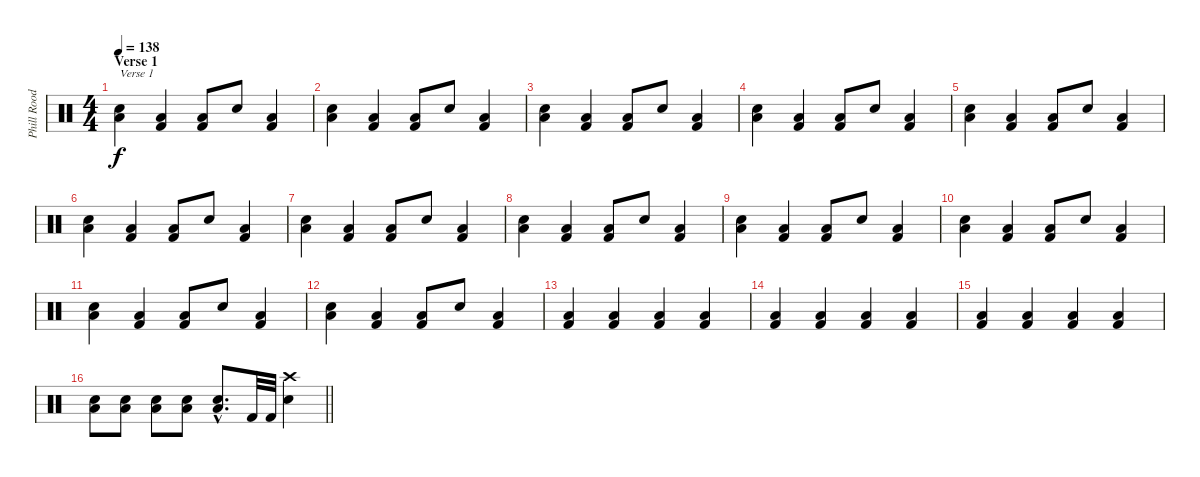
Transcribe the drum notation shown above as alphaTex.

\track ("Phill Rood" "Phill Rood") {instrument percussion}
\staff {score}
\articulation defaults
\ts (4 4)
\section ("" "Verse 1")
\tempo 138
\clef neutral
\ks c
("Snare (hit) 2" "Low Tom (hit)").4{txt "Verse 1" dy f} ("Kick (hit) 2" "Low Tom (hit)").4 ("Kick (hit) 2" "Low Tom (hit)").8 "Snare (hit) 2".8 ("Kick (hit) 2" "Low Tom (hit)").4 |
("Snare (hit) 2" "Low Tom (hit)").4 ("Kick (hit) 2" "Low Tom (hit)").4 ("Kick (hit) 2" "Low Tom (hit)").8 "Snare (hit) 2".8 ("Kick (hit) 2" "Low Tom (hit)").4 |
("Snare (hit) 2" "Low Tom (hit)").4 ("Kick (hit) 2" "Low Tom (hit)").4 ("Kick (hit) 2" "Low Tom (hit)").8 "Snare (hit) 2".8 ("Kick (hit) 2" "Low Tom (hit)").4 |
("Snare (hit) 2" "Low Tom (hit)").4 ("Kick (hit) 2" "Low Tom (hit)").4 ("Kick (hit) 2" "Low Tom (hit)").8 "Snare (hit) 2".8 ("Kick (hit) 2" "Low Tom (hit)").4 |
("Snare (hit) 2" "Low Tom (hit)").4 ("Kick (hit) 2" "Low Tom (hit)").4 ("Kick (hit) 2" "Low Tom (hit)").8 "Snare (hit) 2".8 ("Kick (hit) 2" "Low Tom (hit)").4 |
("Snare (hit) 2" "Low Tom (hit)").4 ("Kick (hit) 2" "Low Tom (hit)").4 ("Kick (hit) 2" "Low Tom (hit)").8 "Snare (hit) 2".8 ("Kick (hit) 2" "Low Tom (hit)").4 |
("Snare (hit) 2" "Low Tom (hit)").4 ("Kick (hit) 2" "Low Tom (hit)").4 ("Kick (hit) 2" "Low Tom (hit)").8 "Snare (hit) 2".8 ("Kick (hit) 2" "Low Tom (hit)").4 |
("Snare (hit) 2" "Low Tom (hit)").4 ("Kick (hit) 2" "Low Tom (hit)").4 ("Kick (hit) 2" "Low Tom (hit)").8 "Snare (hit) 2".8 ("Kick (hit) 2" "Low Tom (hit)").4 |
("Snare (hit) 2" "Low Tom (hit)").4 ("Kick (hit) 2" "Low Tom (hit)").4 ("Kick (hit) 2" "Low Tom (hit)").8 "Snare (hit) 2".8 ("Kick (hit) 2" "Low Tom (hit)").4 |
("Snare (hit) 2" "Low Tom (hit)").4 ("Kick (hit) 2" "Low Tom (hit)").4 ("Kick (hit) 2" "Low Tom (hit)").8 "Snare (hit) 2".8 ("Kick (hit) 2" "Low Tom (hit)").4 |
("Snare (hit) 2" "Low Tom (hit)").4 ("Kick (hit) 2" "Low Tom (hit)").4 ("Kick (hit) 2" "Low Tom (hit)").8 "Snare (hit) 2".8 ("Kick (hit) 2" "Low Tom (hit)").4 |
("Snare (hit) 2" "Low Tom (hit)").4 ("Kick (hit) 2" "Low Tom (hit)").4 ("Kick (hit) 2" "Low Tom (hit)").8 "Snare (hit) 2".8 ("Kick (hit) 2" "Low Tom (hit)").4 |
("Kick (hit) 2" "Low Tom (hit)").4 ("Kick (hit) 2" "Low Tom (hit)").4 ("Kick (hit) 2" "Low Tom (hit)").4 ("Kick (hit) 2" "Low Tom (hit)").4 |
("Kick (hit) 2" "Low Tom (hit)").4 ("Kick (hit) 2" "Low Tom (hit)").4 ("Kick (hit) 2" "Low Tom (hit)").4 ("Kick (hit) 2" "Low Tom (hit)").4 |
("Kick (hit) 2" "Low Tom (hit)").4 ("Kick (hit) 2" "Low Tom (hit)").4 ("Kick (hit) 2" "Low Tom (hit)").4 ("Kick (hit) 2" "Low Tom (hit)").4 |
\barLineRight lightlight
("Snare (hit) 2" "Low Tom (hit)").8 ("Snare (hit) 2" "Low Tom (hit)").8 ("Snare (hit) 2" "Low Tom (hit)").8 ("Snare (hit) 2" "Low Tom (hit)").8 ("Snare (hit) 2"{hac} "Low Tom (hit)"{hac}).8{d} "Kick (hit) 2".32 "Kick (hit) 2".32 ("Snare (hit) 2" "Crash high (hit)").4
